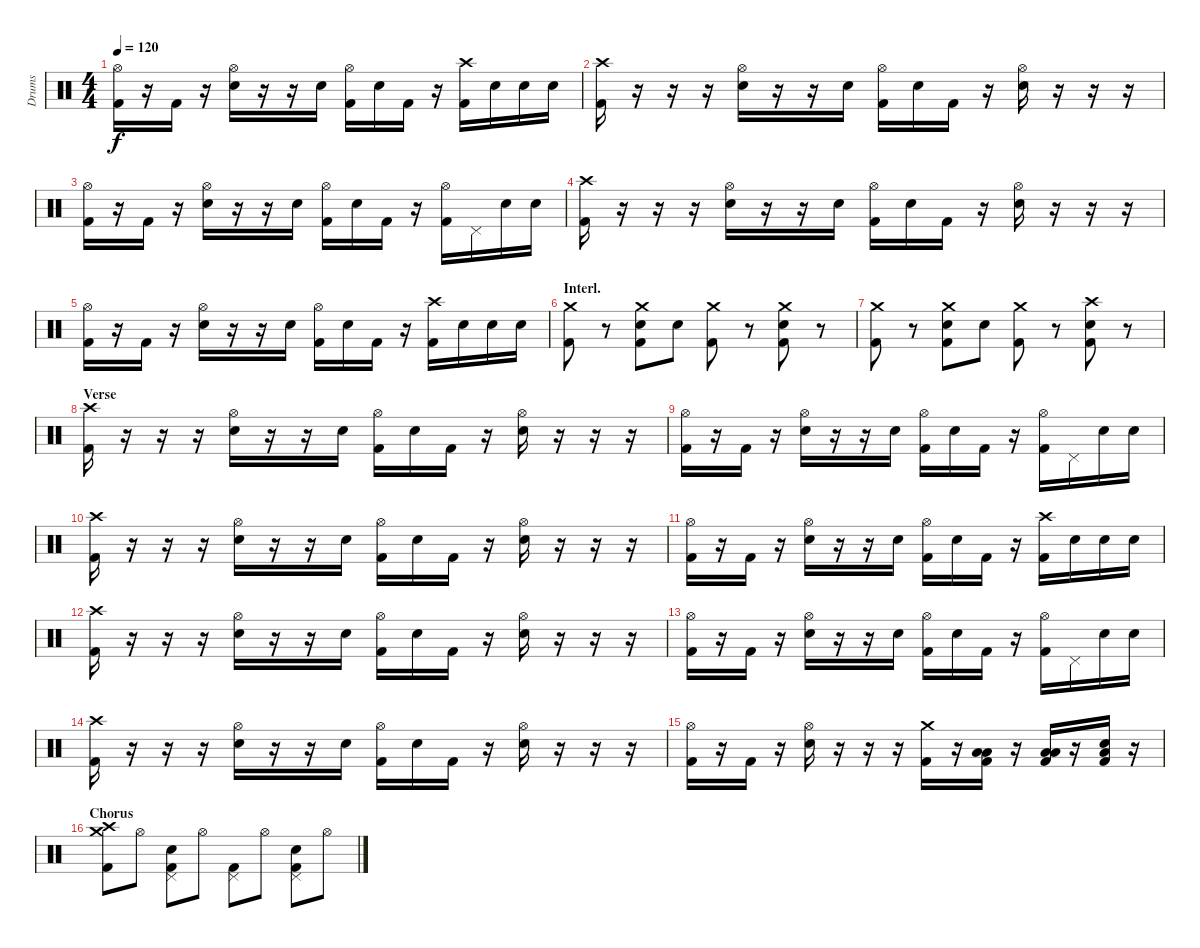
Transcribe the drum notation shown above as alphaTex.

\track ("Drums" "Drums") {instrument percussion}
\staff {score}
\articulation defaults
\ts (4 4)
\tempo 120
\clef neutral
\ks c
("Hi-Hat (open)" "Kick (hit) 2").16{dy f} r.16 "Kick (hit) 2".16 r.16 ("Hi-Hat (open)" "Snare (hit) 2").16 r.16 r.16 "Snare (hit) 2".16 ("Hi-Hat (open)" "Kick (hit) 2").16 "Snare (hit) 2".16 "Kick (hit) 2".16 r.16 ("Crash high (hit)" "Kick (hit) 2").16 "Snare (hit) 2".16 "Snare (hit) 2".16 "Snare (hit) 2".16 |
("Crash high (hit)" "Kick (hit) 2").16 r.16 r.16 r.16 ("Hi-Hat (open)" "Snare (hit) 2").16 r.16 r.16 "Snare (hit) 2".16 ("Hi-Hat (open)" "Kick (hit) 2").16 "Snare (hit) 2".16 "Kick (hit) 2".16 r.16 ("Hi-Hat (open)" "Snare (hit) 2").16 r.16 r.16 r.16 |
("Hi-Hat (open)" "Kick (hit) 2").16 r.16 "Kick (hit) 2".16 r.16 ("Hi-Hat (open)" "Snare (hit) 2").16 r.16 r.16 "Snare (hit) 2".16 ("Hi-Hat (open)" "Kick (hit) 2").16 "Snare (hit) 2".16 "Kick (hit) 2".16 r.16 ("Hi-Hat (open)" "Kick (hit) 2").16 "Pedal Hi-Hat (hit)".16 "Snare (hit) 2".16 "Snare (hit) 2".16 |
("Crash high (hit)" "Kick (hit) 2").16 r.16 r.16 r.16 ("Hi-Hat (open)" "Snare (hit) 2").16 r.16 r.16 "Snare (hit) 2".16 ("Hi-Hat (open)" "Kick (hit) 2").16 "Snare (hit) 2".16 "Kick (hit) 2".16 r.16 ("Hi-Hat (open)" "Snare (hit) 2").16 r.16 r.16 r.16 |
("Hi-Hat (open)" "Kick (hit) 2").16 r.16 "Kick (hit) 2".16 r.16 ("Hi-Hat (open)" "Snare (hit) 2").16 r.16 r.16 "Snare (hit) 2".16 ("Hi-Hat (open)" "Kick (hit) 2").16 "Snare (hit) 2".16 "Kick (hit) 2".16 r.16 ("Crash high (hit)" "Kick (hit) 2").16 "Snare (hit) 2".16 "Snare (hit) 2".16 "Snare (hit) 2".16 |
\section ("" "Interl.")
("Crash medium (hit)" "Kick (hit) 2").8 r.8 ("Crash medium (hit)" "Snare (hit) 2" "Kick (hit) 2").8 "Snare (hit) 2".8 ("Crash medium (hit)" "Kick (hit) 2").8 r.8 ("Crash medium (hit)" "Snare (hit) 2" "Kick (hit) 2").8 r.8 |
("Crash medium (hit)" "Kick (hit) 2").8 r.8 ("Crash medium (hit)" "Snare (hit) 2" "Kick (hit) 2").8 "Snare (hit) 2".8 ("Crash medium (hit)" "Kick (hit) 2").8 r.8 ("Crash high (hit)" "Snare (hit) 2" "Kick (hit) 2").8 r.8 |
\section ("" "Verse")
("Crash high (hit)" "Kick (hit) 2").16 r.16 r.16 r.16 ("Hi-Hat (open)" "Snare (hit) 2").16 r.16 r.16 "Snare (hit) 2".16 ("Hi-Hat (open)" "Kick (hit) 2").16 "Snare (hit) 2".16 "Kick (hit) 2".16 r.16 ("Hi-Hat (open)" "Snare (hit) 2").16 r.16 r.16 r.16 |
("Hi-Hat (open)" "Kick (hit) 2").16 r.16 "Kick (hit) 2".16 r.16 ("Hi-Hat (open)" "Snare (hit) 2").16 r.16 r.16 "Snare (hit) 2".16 ("Hi-Hat (open)" "Kick (hit) 2").16 "Snare (hit) 2".16 "Kick (hit) 2".16 r.16 ("Hi-Hat (open)" "Kick (hit) 2").16 "Pedal Hi-Hat (hit)".16 "Snare (hit) 2".16 "Snare (hit) 2".16 |
("Crash high (hit)" "Kick (hit) 2").16 r.16 r.16 r.16 ("Hi-Hat (open)" "Snare (hit) 2").16 r.16 r.16 "Snare (hit) 2".16 ("Hi-Hat (open)" "Kick (hit) 2").16 "Snare (hit) 2".16 "Kick (hit) 2".16 r.16 ("Hi-Hat (open)" "Snare (hit) 2").16 r.16 r.16 r.16 |
("Hi-Hat (open)" "Kick (hit) 2").16 r.16 "Kick (hit) 2".16 r.16 ("Hi-Hat (open)" "Snare (hit) 2").16 r.16 r.16 "Snare (hit) 2".16 ("Hi-Hat (open)" "Kick (hit) 2").16 "Snare (hit) 2".16 "Kick (hit) 2".16 r.16 ("Crash high (hit)" "Kick (hit) 2").16 "Snare (hit) 2".16 "Snare (hit) 2".16 "Snare (hit) 2".16 |
("Crash high (hit)" "Kick (hit) 2").16 r.16 r.16 r.16 ("Hi-Hat (open)" "Snare (hit) 2").16 r.16 r.16 "Snare (hit) 2".16 ("Hi-Hat (open)" "Kick (hit) 2").16 "Snare (hit) 2".16 "Kick (hit) 2".16 r.16 ("Hi-Hat (open)" "Snare (hit) 2").16 r.16 r.16 r.16 |
("Hi-Hat (open)" "Kick (hit) 2").16 r.16 "Kick (hit) 2".16 r.16 ("Hi-Hat (open)" "Snare (hit) 2").16 r.16 r.16 "Snare (hit) 2".16 ("Hi-Hat (open)" "Kick (hit) 2").16 "Snare (hit) 2".16 "Kick (hit) 2".16 r.16 ("Hi-Hat (open)" "Kick (hit) 2").16 "Pedal Hi-Hat (hit)".16 "Snare (hit) 2".16 "Snare (hit) 2".16 |
("Crash high (hit)" "Kick (hit) 2").16 r.16 r.16 r.16 ("Hi-Hat (open)" "Snare (hit) 2").16 r.16 r.16 "Snare (hit) 2".16 ("Hi-Hat (open)" "Kick (hit) 2").16 "Snare (hit) 2".16 "Kick (hit) 2".16 r.16 ("Hi-Hat (open)" "Snare (hit) 2").16 r.16 r.16 r.16 |
("Hi-Hat (open)" "Kick (hit) 2").16 r.16 "Kick (hit) 2".16 r.16 ("Hi-Hat (open)" "Snare (hit) 2").16 r.16 r.16 r.16 ("Crash medium (hit)" "Kick (hit) 2").16 r.16 ("Low Tom (hit)" "Low Floor Tom (hit)" "Kick (hit) 2").16 r.16 ("Low Tom (hit)" "Low Floor Tom (hit)" "Kick (hit) 2").16 r.16 ("Snare (hit) 2" "Low Floor Tom (hit)" "Kick (hit) 2").16 r.16 |
\section ("" "Chorus")
("Crash high (hit)" "Crash medium (hit)" "Kick (hit) 2").8 "Hi-Hat (open)".8 ("Pedal Hi-Hat (hit)" "Snare (hit) 2" "Kick (hit) 2").8 "Hi-Hat (open)".8 ("Pedal Hi-Hat (hit)" "Kick (hit) 2").8 "Hi-Hat (open)".8 ("Pedal Hi-Hat (hit)" "Snare (hit) 2" "Kick (hit) 2").8 "Hi-Hat (open)".8
